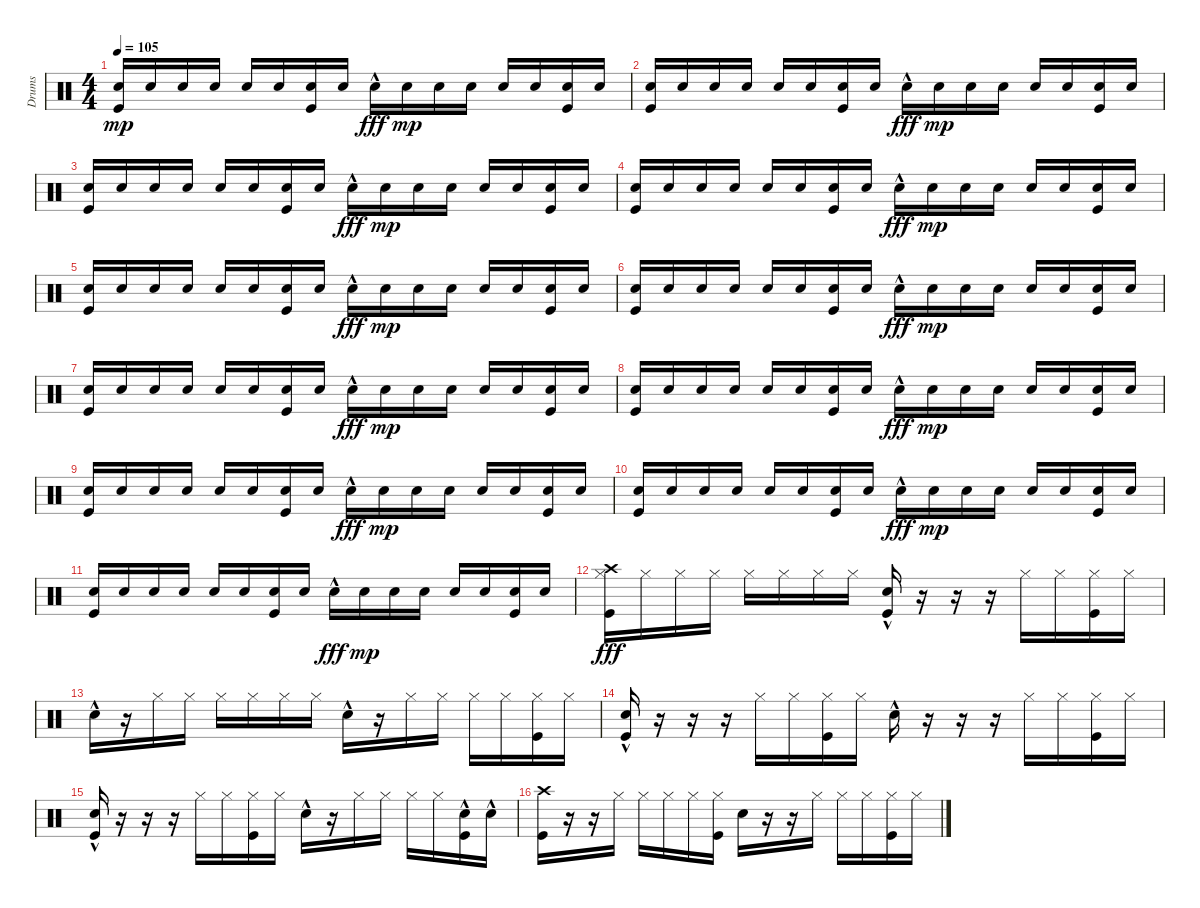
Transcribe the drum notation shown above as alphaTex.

\track ("Drums" "Drums") {instrument percussion}
\staff {score}
\articulation defaults
\ts (4 4)
\tempo 105
\clef neutral
\ks c
("Snare (hit) 2" "Kick (hit)").16{dy mp} "Snare (hit) 2".16 "Snare (hit) 2".16 "Snare (hit) 2".16 "Snare (hit) 2".16 "Snare (hit) 2".16 ("Snare (hit) 2" "Kick (hit)").16 "Snare (hit) 2".16 "Snare (hit) 2"{hac}.16{dy fff} "Snare (hit) 2".16{dy mp} "Snare (hit) 2".16 "Snare (hit) 2".16 "Snare (hit) 2".16 "Snare (hit) 2".16 ("Snare (hit) 2" "Kick (hit)").16 "Snare (hit) 2".16 |
("Snare (hit) 2" "Kick (hit)").16 "Snare (hit) 2".16 "Snare (hit) 2".16 "Snare (hit) 2".16 "Snare (hit) 2".16 "Snare (hit) 2".16 ("Snare (hit) 2" "Kick (hit)").16 "Snare (hit) 2".16 "Snare (hit) 2"{hac}.16{dy fff} "Snare (hit) 2".16{dy mp} "Snare (hit) 2".16 "Snare (hit) 2".16 "Snare (hit) 2".16 "Snare (hit) 2".16 ("Snare (hit) 2" "Kick (hit)").16 "Snare (hit) 2".16 |
("Snare (hit) 2" "Kick (hit)").16 "Snare (hit) 2".16 "Snare (hit) 2".16 "Snare (hit) 2".16 "Snare (hit) 2".16 "Snare (hit) 2".16 ("Snare (hit) 2" "Kick (hit)").16 "Snare (hit) 2".16 "Snare (hit) 2"{hac}.16{dy fff} "Snare (hit) 2".16{dy mp} "Snare (hit) 2".16 "Snare (hit) 2".16 "Snare (hit) 2".16 "Snare (hit) 2".16 ("Snare (hit) 2" "Kick (hit)").16 "Snare (hit) 2".16 |
("Snare (hit) 2" "Kick (hit)").16 "Snare (hit) 2".16 "Snare (hit) 2".16 "Snare (hit) 2".16 "Snare (hit) 2".16 "Snare (hit) 2".16 ("Snare (hit) 2" "Kick (hit)").16 "Snare (hit) 2".16 "Snare (hit) 2"{hac}.16{dy fff} "Snare (hit) 2".16{dy mp} "Snare (hit) 2".16 "Snare (hit) 2".16 "Snare (hit) 2".16 "Snare (hit) 2".16 ("Snare (hit) 2" "Kick (hit)").16 "Snare (hit) 2".16 |
("Snare (hit) 2" "Kick (hit)").16 "Snare (hit) 2".16 "Snare (hit) 2".16 "Snare (hit) 2".16 "Snare (hit) 2".16 "Snare (hit) 2".16 ("Snare (hit) 2" "Kick (hit)").16 "Snare (hit) 2".16 "Snare (hit) 2"{hac}.16{dy fff} "Snare (hit) 2".16{dy mp} "Snare (hit) 2".16 "Snare (hit) 2".16 "Snare (hit) 2".16 "Snare (hit) 2".16 ("Snare (hit) 2" "Kick (hit)").16 "Snare (hit) 2".16 |
("Snare (hit) 2" "Kick (hit)").16 "Snare (hit) 2".16 "Snare (hit) 2".16 "Snare (hit) 2".16 "Snare (hit) 2".16 "Snare (hit) 2".16 ("Snare (hit) 2" "Kick (hit)").16 "Snare (hit) 2".16 "Snare (hit) 2"{hac}.16{dy fff} "Snare (hit) 2".16{dy mp} "Snare (hit) 2".16 "Snare (hit) 2".16 "Snare (hit) 2".16 "Snare (hit) 2".16 ("Snare (hit) 2" "Kick (hit)").16 "Snare (hit) 2".16 |
("Snare (hit) 2" "Kick (hit)").16 "Snare (hit) 2".16 "Snare (hit) 2".16 "Snare (hit) 2".16 "Snare (hit) 2".16 "Snare (hit) 2".16 ("Snare (hit) 2" "Kick (hit)").16 "Snare (hit) 2".16 "Snare (hit) 2"{hac}.16{dy fff} "Snare (hit) 2".16{dy mp} "Snare (hit) 2".16 "Snare (hit) 2".16 "Snare (hit) 2".16 "Snare (hit) 2".16 ("Snare (hit) 2" "Kick (hit)").16 "Snare (hit) 2".16 |
("Snare (hit) 2" "Kick (hit)").16 "Snare (hit) 2".16 "Snare (hit) 2".16 "Snare (hit) 2".16 "Snare (hit) 2".16 "Snare (hit) 2".16 ("Snare (hit) 2" "Kick (hit)").16 "Snare (hit) 2".16 "Snare (hit) 2"{hac}.16{dy fff} "Snare (hit) 2".16{dy mp} "Snare (hit) 2".16 "Snare (hit) 2".16 "Snare (hit) 2".16 "Snare (hit) 2".16 ("Snare (hit) 2" "Kick (hit)").16 "Snare (hit) 2".16 |
("Snare (hit) 2" "Kick (hit)").16 "Snare (hit) 2".16 "Snare (hit) 2".16 "Snare (hit) 2".16 "Snare (hit) 2".16 "Snare (hit) 2".16 ("Snare (hit) 2" "Kick (hit)").16 "Snare (hit) 2".16 "Snare (hit) 2"{hac}.16{dy fff} "Snare (hit) 2".16{dy mp} "Snare (hit) 2".16 "Snare (hit) 2".16 "Snare (hit) 2".16 "Snare (hit) 2".16 ("Snare (hit) 2" "Kick (hit)").16 "Snare (hit) 2".16 |
("Snare (hit) 2" "Kick (hit)").16 "Snare (hit) 2".16 "Snare (hit) 2".16 "Snare (hit) 2".16 "Snare (hit) 2".16 "Snare (hit) 2".16 ("Snare (hit) 2" "Kick (hit)").16 "Snare (hit) 2".16 "Snare (hit) 2"{hac}.16{dy fff} "Snare (hit) 2".16{dy mp} "Snare (hit) 2".16 "Snare (hit) 2".16 "Snare (hit) 2".16 "Snare (hit) 2".16 ("Snare (hit) 2" "Kick (hit)").16 "Snare (hit) 2".16 |
("Snare (hit) 2" "Kick (hit)").16 "Snare (hit) 2".16 "Snare (hit) 2".16 "Snare (hit) 2".16 "Snare (hit) 2".16 "Snare (hit) 2".16 ("Snare (hit) 2" "Kick (hit)").16 "Snare (hit) 2".16 "Snare (hit) 2"{hac}.16{dy fff} "Snare (hit) 2".16{dy mp} "Snare (hit) 2".16 "Snare (hit) 2".16 "Snare (hit) 2".16 "Snare (hit) 2".16 ("Snare (hit) 2" "Kick (hit)").16 "Snare (hit) 2".16 |
("Crash high (hit)" "Hi-Hat (closed)" "Kick (hit)").16{dy fff} "Hi-Hat (closed)".16 "Hi-Hat (closed)".16 "Hi-Hat (closed)".16 "Hi-Hat (closed)".16 "Hi-Hat (closed)".16 "Hi-Hat (closed)".16 "Hi-Hat (closed)".16 ("Snare (hit) 2"{hac} "Kick (hit)").16 r.16 r.16 r.16 "Hi-Hat (closed)".16 "Hi-Hat (closed)".16 ("Hi-Hat (closed)" "Kick (hit)").16 "Hi-Hat (closed)".16 |
"Snare (hit) 2"{hac}.16 r.16 "Hi-Hat (closed)".16 "Hi-Hat (closed)".16 "Hi-Hat (closed)".16 "Hi-Hat (closed)".16 "Hi-Hat (closed)".16 "Hi-Hat (closed)".16 "Snare (hit) 2"{hac}.16 r.16 "Hi-Hat (closed)".16 "Hi-Hat (closed)".16 "Hi-Hat (closed)".16 "Hi-Hat (closed)".16 ("Hi-Hat (closed)" "Kick (hit)").16 "Hi-Hat (closed)".16 |
("Snare (hit) 2"{hac} "Kick (hit)").16 r.16 r.16 r.16 "Hi-Hat (closed)".16 "Hi-Hat (closed)".16 ("Hi-Hat (closed)" "Kick (hit)").16 "Hi-Hat (closed)".16 "Snare (hit) 2"{hac}.16 r.16 r.16 r.16 "Hi-Hat (closed)".16 "Hi-Hat (closed)".16 ("Hi-Hat (closed)" "Kick (hit)").16 "Hi-Hat (closed)".16 |
("Snare (hit) 2"{hac} "Kick (hit)").16 r.16 r.16 r.16 "Hi-Hat (closed)".16 "Hi-Hat (closed)".16 ("Hi-Hat (closed)" "Kick (hit)").16 "Hi-Hat (closed)".16 "Snare (hit) 2"{hac}.16 r.16 "Hi-Hat (closed)".16 "Hi-Hat (closed)".16 "Hi-Hat (closed)".16 "Hi-Hat (closed)".16 ("Snare (hit) 2"{hac} "Kick (hit)").16 "Snare (hit) 2"{hac}.16 |
("Crash high (hit)" "Kick (hit)").16 r.16 r.16 "Hi-Hat (closed)".16 "Hi-Hat (closed)".16 "Hi-Hat (closed)".16 "Hi-Hat (closed)".16 ("Hi-Hat (closed)" "Kick (hit)").16 "Snare (hit) 2".16 r.16 r.16 "Hi-Hat (closed)".16 "Hi-Hat (closed)".16 "Hi-Hat (closed)".16 ("Hi-Hat (closed)" "Kick (hit)").16 "Hi-Hat (closed)".16
